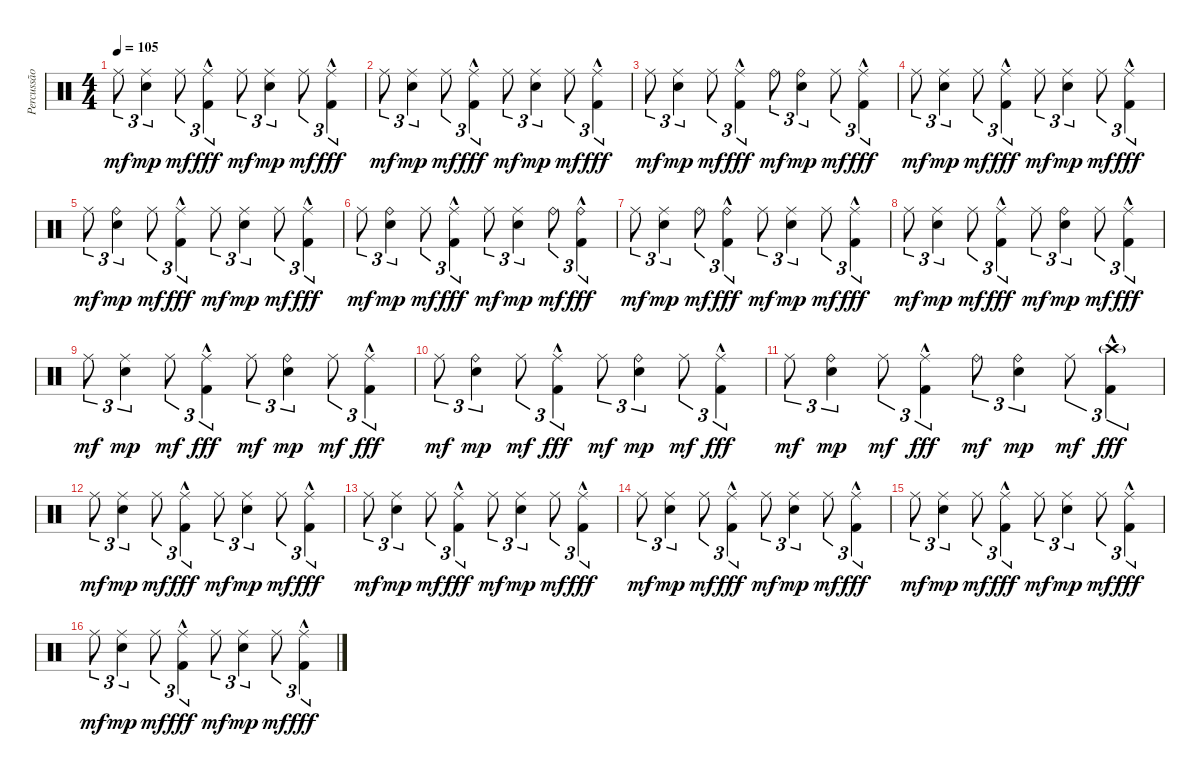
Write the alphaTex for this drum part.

\track ("Percussão" "Percussão") {instrument percussion}
\staff {score}
\articulation defaults
\ts (4 4)
\tempo 105
\clef neutral
\ks c "Ride (middle)".8{tu (3 2) dy mf}
("Ride (middle)" "Electric Snare (hit)").4{tu (3 2) dy mp} "Ride (middle)".8{tu (3 2) dy mf} ("Ride (middle)" "Kick (hit) 2"{hac}).4{tu (3 2) dy fff} "Ride (middle)".8{tu (3 2) dy mf} ("Ride (middle)" "Electric Snare (hit)").4{tu (3 2) dy mp} "Ride (middle)".8{tu (3 2) dy mf} ("Ride (middle)" "Kick (hit) 2"{hac}).4{tu (3 2) dy fff} |
"Ride (middle)".8{tu (3 2) dy mf} ("Ride (middle)" "Electric Snare (hit)").4{tu (3 2) dy mp} "Ride (middle)".8{tu (3 2) dy mf} ("Ride (middle)" "Kick (hit) 2"{hac}).4{tu (3 2) dy fff} "Ride (middle)".8{tu (3 2) dy mf} ("Ride (middle)" "Electric Snare (hit)").4{tu (3 2) dy mp} "Ride (middle)".8{tu (3 2) dy mf} ("Ride (middle)" "Kick (hit) 2"{hac}).4{tu (3 2) dy fff} |
"Ride (middle)".8{tu (3 2) dy mf} ("Ride (middle)" "Electric Snare (hit)").4{tu (3 2) dy mp} "Ride (middle)".8{tu (3 2) dy mf} ("Ride (middle)" "Kick (hit) 2"{hac}).4{tu (3 2) dy fff} "Ride (bell)".8{tu (3 2) dy mf} ("Ride (bell)" "Electric Snare (hit)").4{tu (3 2) dy mp} "Ride (middle)".8{tu (3 2) dy mf} ("Ride (middle)" "Kick (hit) 2"{hac}).4{tu (3 2) dy fff} |
"Ride (middle)".8{tu (3 2) dy mf} ("Ride (middle)" "Electric Snare (hit)").4{tu (3 2) dy mp} "Ride (middle)".8{tu (3 2) dy mf} ("Ride (middle)" "Kick (hit) 2"{hac}).4{tu (3 2) dy fff} "Ride (middle)".8{tu (3 2) dy mf} ("Ride (middle)" "Electric Snare (hit)").4{tu (3 2) dy mp} "Ride (middle)".8{tu (3 2) dy mf} ("Ride (middle)" "Kick (hit) 2"{hac}).4{tu (3 2) dy fff} |
"Ride (middle)".8{tu (3 2) dy mf} ("Ride (bell)" "Electric Snare (hit)").4{tu (3 2) dy mp} "Ride (middle)".8{tu (3 2) dy mf} ("Ride (middle)" "Kick (hit) 2"{hac}).4{tu (3 2) dy fff} "Ride (middle)".8{tu (3 2) dy mf} ("Ride (middle)" "Electric Snare (hit)").4{tu (3 2) dy mp} "Ride (middle)".8{tu (3 2) dy mf} ("Ride (middle)" "Kick (hit) 2"{hac}).4{tu (3 2) dy fff} |
"Ride (middle)".8{tu (3 2) dy mf} ("Ride (bell)" "Electric Snare (hit)").4{tu (3 2) dy mp} "Ride (middle)".8{tu (3 2) dy mf} ("Ride (middle)" "Kick (hit) 2"{hac}).4{tu (3 2) dy fff} "Ride (middle)".8{tu (3 2) dy mf} ("Ride (middle)" "Electric Snare (hit)").4{tu (3 2) dy mp} "Ride (bell)".8{tu (3 2) dy mf} ("Ride (bell)" "Kick (hit) 2"{hac}).4{tu (3 2) dy fff} |
"Ride (middle)".8{tu (3 2) dy mf} ("Ride (middle)" "Electric Snare (hit)").4{tu (3 2) dy mp} "Ride (bell)".8{tu (3 2) dy mf} ("Ride (bell)" "Kick (hit) 2"{hac}).4{tu (3 2) dy fff} "Ride (middle)".8{tu (3 2) dy mf} ("Ride (middle)" "Electric Snare (hit)").4{tu (3 2) dy mp} "Ride (middle)".8{tu (3 2) dy mf} ("Ride (middle)" "Kick (hit) 2"{hac}).4{tu (3 2) dy fff} |
"Ride (middle)".8{tu (3 2) dy mf} ("Ride (middle)" "Electric Snare (hit)").4{tu (3 2) dy mp} "Ride (middle)".8{tu (3 2) dy mf} ("Ride (middle)" "Kick (hit) 2"{hac}).4{tu (3 2) dy fff} "Ride (middle)".8{tu (3 2) dy mf} ("Ride (bell)" "Electric Snare (hit)").4{tu (3 2) dy mp} "Ride (middle)".8{tu (3 2) dy mf} ("Ride (middle)" "Kick (hit) 2"{hac}).4{tu (3 2) dy fff} |
"Ride (middle)".8{tu (3 2) dy mf} ("Ride (middle)" "Electric Snare (hit)").4{tu (3 2) dy mp} "Ride (middle)".8{tu (3 2) dy mf} ("Ride (middle)" "Kick (hit) 2"{hac}).4{tu (3 2) dy fff} "Ride (middle)".8{tu (3 2) dy mf} ("Ride (bell)" "Electric Snare (hit)").4{tu (3 2) dy mp} "Ride (middle)".8{tu (3 2) dy mf} ("Ride (middle)" "Kick (hit) 2"{hac}).4{tu (3 2) dy fff} |
"Ride (middle)".8{tu (3 2) dy mf} ("Ride (bell)" "Electric Snare (hit)").4{tu (3 2) dy mp} "Ride (middle)".8{tu (3 2) dy mf} ("Ride (middle)" "Kick (hit) 2"{hac}).4{tu (3 2) dy fff} "Ride (middle)".8{tu (3 2) dy mf} ("Ride (bell)" "Electric Snare (hit)").4{tu (3 2) dy mp} "Ride (middle)".8{tu (3 2) dy mf} ("Ride (middle)" "Kick (hit) 2"{hac}).4{tu (3 2) dy fff} |
"Ride (middle)".8{tu (3 2) dy mf} ("Ride (bell)" "Electric Snare (hit)").4{tu (3 2) dy mp} "Ride (middle)".8{tu (3 2) dy mf} ("Ride (middle)" "Kick (hit) 2"{hac}).4{tu (3 2) dy fff} "Ride (bell)".8{tu (3 2) dy mf} ("Ride (bell)" "Electric Snare (hit)").4{tu (3 2) dy mp} "Ride (middle)".8{tu (3 2) dy mf} ("Crash high (hit)"{g} "Kick (hit) 2"{hac}).4{tu (3 2) dy fff} |
"Ride (middle)".8{tu (3 2) dy mf} ("Ride (middle)" "Electric Snare (hit)").4{tu (3 2) dy mp} "Ride (middle)".8{tu (3 2) dy mf} ("Ride (middle)" "Kick (hit) 2"{hac}).4{tu (3 2) dy fff} "Ride (middle)".8{tu (3 2) dy mf} ("Ride (middle)" "Electric Snare (hit)").4{tu (3 2) dy mp} "Ride (middle)".8{tu (3 2) dy mf} ("Ride (middle)" "Kick (hit) 2"{hac}).4{tu (3 2) dy fff} |
"Ride (middle)".8{tu (3 2) dy mf} ("Ride (middle)" "Electric Snare (hit)").4{tu (3 2) dy mp} "Ride (middle)".8{tu (3 2) dy mf} ("Ride (middle)" "Kick (hit) 2"{hac}).4{tu (3 2) dy fff} "Ride (middle)".8{tu (3 2) dy mf} ("Ride (middle)" "Electric Snare (hit)").4{tu (3 2) dy mp} "Ride (middle)".8{tu (3 2) dy mf} ("Ride (middle)" "Kick (hit) 2"{hac}).4{tu (3 2) dy fff} |
"Ride (middle)".8{tu (3 2) dy mf} ("Ride (middle)" "Electric Snare (hit)").4{tu (3 2) dy mp} "Ride (middle)".8{tu (3 2) dy mf} ("Ride (middle)" "Kick (hit) 2"{hac}).4{tu (3 2) dy fff} "Ride (middle)".8{tu (3 2) dy mf} ("Ride (middle)" "Electric Snare (hit)").4{tu (3 2) dy mp} "Ride (middle)".8{tu (3 2) dy mf} ("Ride (middle)" "Kick (hit) 2"{hac}).4{tu (3 2) dy fff} |
"Ride (middle)".8{tu (3 2) dy mf} ("Ride (middle)" "Electric Snare (hit)").4{tu (3 2) dy mp} "Ride (middle)".8{tu (3 2) dy mf} ("Ride (middle)" "Kick (hit) 2"{hac}).4{tu (3 2) dy fff} "Ride (middle)".8{tu (3 2) dy mf} ("Ride (middle)" "Electric Snare (hit)").4{tu (3 2) dy mp} "Ride (middle)".8{tu (3 2) dy mf} ("Ride (middle)" "Kick (hit) 2"{hac}).4{tu (3 2) dy fff} |
"Ride (middle)".8{tu (3 2) dy mf} ("Ride (middle)" "Electric Snare (hit)").4{tu (3 2) dy mp} "Ride (middle)".8{tu (3 2) dy mf} ("Ride (middle)" "Kick (hit) 2"{hac}).4{tu (3 2) dy fff} "Ride (middle)".8{tu (3 2) dy mf} ("Ride (middle)" "Electric Snare (hit)").4{tu (3 2) dy mp} "Ride (middle)".8{tu (3 2) dy mf} ("Ride (middle)" "Kick (hit) 2"{hac}).4{tu (3 2) dy fff}
